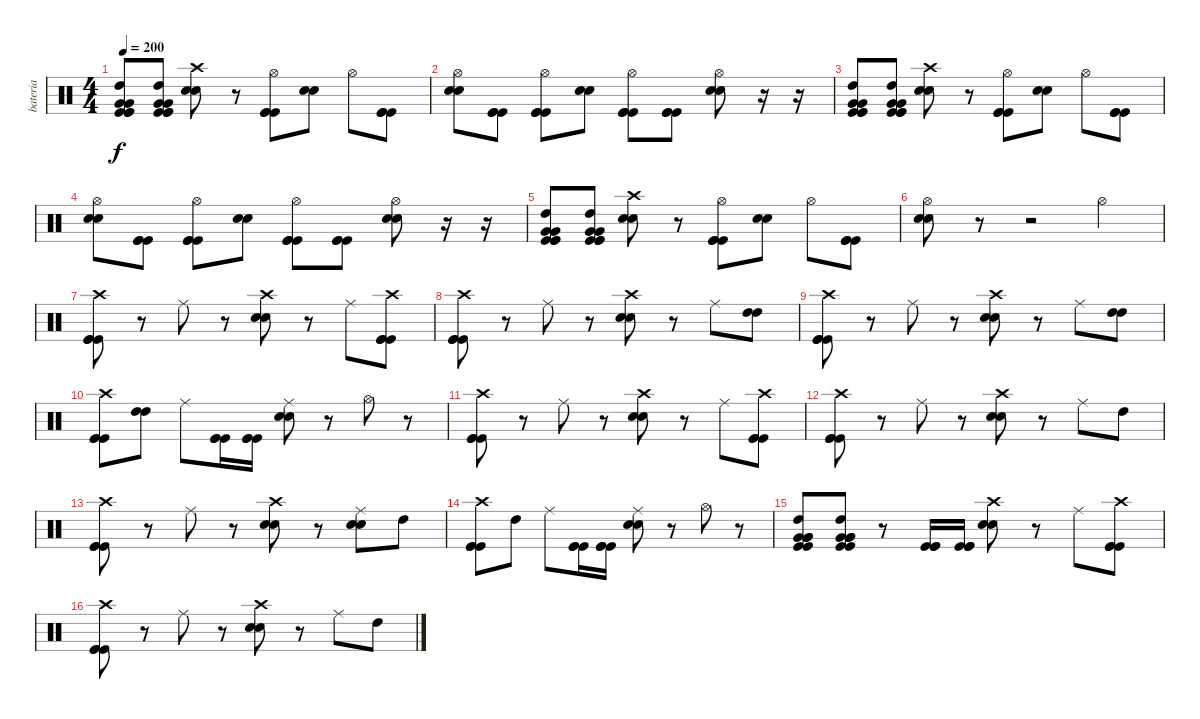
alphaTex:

\track ("bateria" "bateria") {instrument percussion}
\staff {score}
\articulation defaults
\ts (4 4)
\tempo 200
\clef neutral
\ks c
("Very Low Tom (hit)" "Very Low Tom (hit)" "High Tom (hit)" "Kick (hit)" "Kick (hit)" "Kick (hit)").8{dy f} ("Very Low Tom (hit)" "Very Low Tom (hit)" "High Tom (hit)" "Kick (hit)" "Kick (hit)" "Kick (hit)").8 ("Electric Snare (hit)" "Crash high (hit)" "Electric Snare (hit)").8 r.8 ("Hi-Hat (open)" "Kick (hit)" "Kick (hit)" "Kick (hit)").8 ("Electric Snare (hit)" "Electric Snare (hit)").8 "Hi-Hat (open)".8 ("Kick (hit)" "Kick (hit)" "Kick (hit)").8 |
("Hi-Hat (open)" "Electric Snare (hit)" "Electric Snare (hit)").8 ("Kick (hit)" "Kick (hit)" "Kick (hit)").8 ("Hi-Hat (open)" "Kick (hit)" "Kick (hit)" "Kick (hit)").8 ("Electric Snare (hit)" "Electric Snare (hit)").8 ("Hi-Hat (open)" "Kick (hit)" "Kick (hit)" "Kick (hit)").8 ("Kick (hit)" "Kick (hit)" "Kick (hit)").8 ("Hi-Hat (open)" "Electric Snare (hit)" "Electric Snare (hit)").8 r.16 r.16 |
("Very Low Tom (hit)" "Very Low Tom (hit)" "High Tom (hit)" "Kick (hit)" "Kick (hit)" "Kick (hit)").8 ("Very Low Tom (hit)" "Very Low Tom (hit)" "High Tom (hit)" "Kick (hit)" "Kick (hit)" "Kick (hit)").8 ("Electric Snare (hit)" "Crash high (hit)" "Electric Snare (hit)").8 r.8 ("Hi-Hat (open)" "Kick (hit)" "Kick (hit)" "Kick (hit)").8 ("Electric Snare (hit)" "Electric Snare (hit)").8 "Hi-Hat (open)".8 ("Kick (hit)" "Kick (hit)" "Kick (hit)").8 |
("Hi-Hat (open)" "Electric Snare (hit)" "Electric Snare (hit)").8 ("Kick (hit)" "Kick (hit)" "Kick (hit)").8 ("Hi-Hat (open)" "Kick (hit)" "Kick (hit)" "Kick (hit)").8 ("Electric Snare (hit)" "Electric Snare (hit)").8 ("Hi-Hat (open)" "Kick (hit)" "Kick (hit)" "Kick (hit)").8 ("Kick (hit)" "Kick (hit)" "Kick (hit)").8 ("Hi-Hat (open)" "Electric Snare (hit)" "Electric Snare (hit)").8 r.16 r.16 |
("Very Low Tom (hit)" "Very Low Tom (hit)" "High Tom (hit)" "Kick (hit)" "Kick (hit)" "Kick (hit)").8 ("Very Low Tom (hit)" "Very Low Tom (hit)" "High Tom (hit)" "Kick (hit)" "Kick (hit)" "Kick (hit)").8 ("Electric Snare (hit)" "Crash high (hit)" "Electric Snare (hit)").8 r.8 ("Hi-Hat (open)" "Kick (hit)" "Kick (hit)" "Kick (hit)").8 ("Electric Snare (hit)" "Electric Snare (hit)").8 "Hi-Hat (open)".8 ("Kick (hit)" "Kick (hit)" "Kick (hit)").8 |
("Hi-Hat (open)" "Electric Snare (hit)" "Electric Snare (hit)").8 r.8 r.2 "Hi-Hat (open)".4 |
("Crash high (hit)" "Kick (hit)" "Kick (hit)" "Kick (hit)").8 r.8 "Ride (middle)".8 r.8 ("Crash high (hit)" "Electric Snare (hit)" "Electric Snare (hit)").8 r.8 "Ride (middle)".8 ("Crash high (hit)" "Kick (hit)" "Kick (hit)" "Kick (hit)").8 |
("Crash high (hit)" "Kick (hit)" "Kick (hit)" "Kick (hit)").8 r.8 "Ride (middle)".8 r.8 ("Crash high (hit)" "Electric Snare (hit)" "Electric Snare (hit)").8 r.8 "Ride (middle)".8 ("High Tom (hit)" "High Tom (hit)").8 |
("Crash high (hit)" "Kick (hit)" "Kick (hit)" "Kick (hit)").8 r.8 "Ride (middle)".8 r.8 ("Crash high (hit)" "Electric Snare (hit)" "Electric Snare (hit)").8 r.8 "Ride (middle)".8 ("High Tom (hit)" "High Tom (hit)").8 |
("Crash high (hit)" "Kick (hit)" "Kick (hit)" "Kick (hit)").8 ("High Tom (hit)" "High Tom (hit)").8 "Ride (middle)".8 ("Kick (hit)" "Kick (hit)" "Kick (hit)").16 ("Kick (hit)" "Kick (hit)" "Kick (hit)").16 ("Ride (middle)" "Electric Snare (hit)" "Electric Snare (hit)").8 r.8 "Hi-Hat (open)".8 r.8 |
("Crash high (hit)" "Kick (hit)" "Kick (hit)" "Kick (hit)").8 r.8 "Ride (middle)".8 r.8 ("Crash high (hit)" "Electric Snare (hit)" "Electric Snare (hit)").8 r.8 "Ride (middle)".8 ("Crash high (hit)" "Kick (hit)" "Kick (hit)" "Kick (hit)").8 |
("Crash high (hit)" "Kick (hit)" "Kick (hit)" "Kick (hit)").8 r.8 "Ride (middle)".8 r.8 ("Crash high (hit)" "Electric Snare (hit)" "Electric Snare (hit)").8 r.8 "Ride (middle)".8 "High Tom (hit)".8 |
("Crash high (hit)" "Kick (hit)" "Kick (hit)" "Kick (hit)").8 r.8 "Ride (middle)".8 r.8 ("Crash high (hit)" "Electric Snare (hit)" "Electric Snare (hit)").8 r.8 ("Ride (middle)" "Electric Snare (hit)" "Electric Snare (hit)").8 "High Tom (hit)".8 |
("Crash high (hit)" "Kick (hit)" "Kick (hit)" "Kick (hit)").8 "High Tom (hit)".8 "Ride (middle)".8 ("Kick (hit)" "Kick (hit)" "Kick (hit)").16 ("Kick (hit)" "Kick (hit)" "Kick (hit)").16 ("Ride (middle)" "Electric Snare (hit)" "Electric Snare (hit)").8 r.8 "Hi-Hat (open)".8 r.8 |
("Kick (hit)" "Kick (hit)" "High Tom (hit)" "Very Low Tom (hit)" "Very Low Tom (hit)" "Very Low Tom (hit)").8 ("Kick (hit)" "Kick (hit)" "High Tom (hit)" "Very Low Tom (hit)" "Very Low Tom (hit)" "Very Low Tom (hit)").8 r.8 ("Kick (hit)" "Kick (hit)" "Kick (hit)").16 ("Kick (hit)" "Kick (hit)" "Kick (hit)").16 ("Crash high (hit)" "Electric Snare (hit)" "Electric Snare (hit)").8 r.8 "Ride (middle)".8 ("Crash high (hit)" "Kick (hit)" "Kick (hit)" "Kick (hit)").8 |
("Crash high (hit)" "Kick (hit)" "Kick (hit)" "Kick (hit)").8 r.8 "Ride (middle)".8 r.8 ("Crash high (hit)" "Electric Snare (hit)" "Electric Snare (hit)").8 r.8 "Ride (middle)".8 "High Tom (hit)".8
